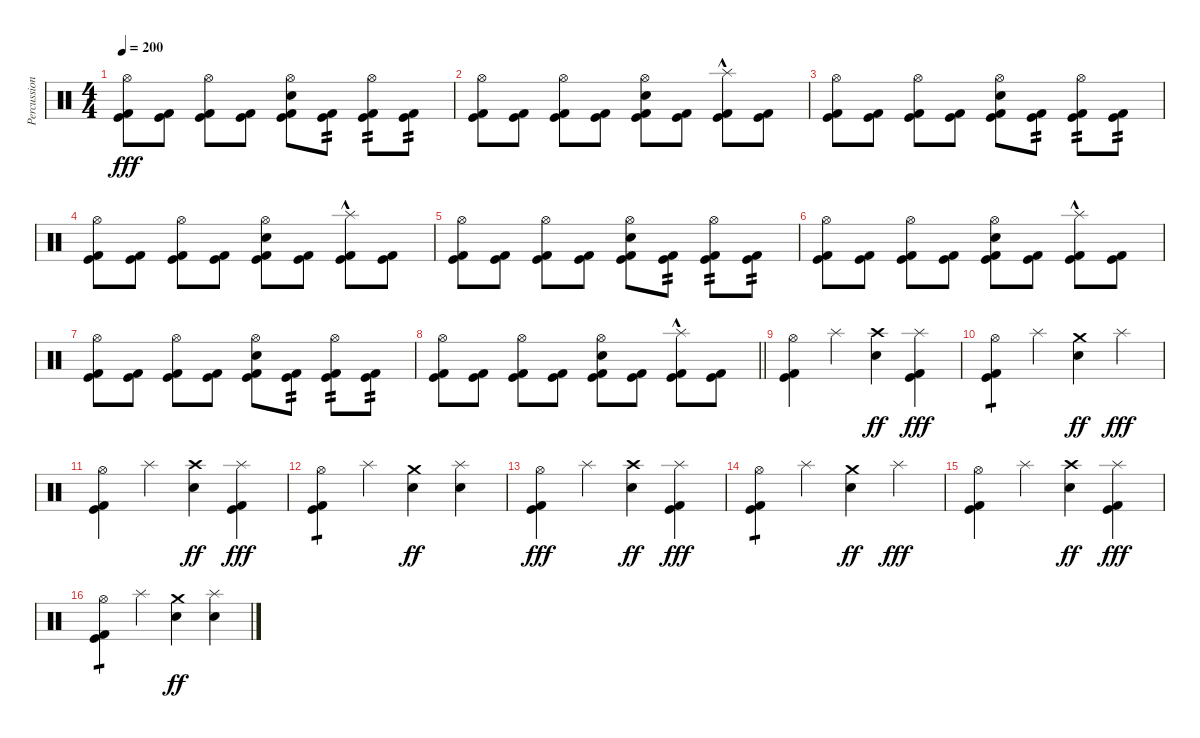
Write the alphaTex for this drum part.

\track ("Percussion" "Percussion") {instrument percussion}
\staff {score}
\articulation defaults
\ts (4 4)
\tempo 200
\clef neutral
\ks c
("Hi-Hat (open)" "Kick (hit) 2" "Kick (hit)").8{dy fff} ("Kick (hit) 2" "Kick (hit)").8 ("Hi-Hat (open)" "Kick (hit) 2" "Kick (hit)").8 ("Kick (hit) 2" "Kick (hit)").8 ("Hi-Hat (open)" "Electric Snare (hit)" "Kick (hit) 2" "Kick (hit)").8 ("Kick (hit) 2" "Kick (hit)").8{tp 2} ("Hi-Hat (open)" "Kick (hit) 2" "Kick (hit)").8{tp 2} ("Kick (hit) 2" "Kick (hit)").8{tp 2} |
("Hi-Hat (open)" "Kick (hit) 2" "Kick (hit)").8 ("Kick (hit) 2" "Kick (hit)").8 ("Hi-Hat (open)" "Kick (hit) 2" "Kick (hit)").8 ("Kick (hit) 2" "Kick (hit)").8 ("Hi-Hat (open)" "Electric Snare (hit)" "Kick (hit) 2" "Kick (hit)").8 ("Kick (hit) 2" "Kick (hit)").8 ("Splash (hit)"{hac} "Kick (hit) 2" "Kick (hit)").8 ("Kick (hit) 2" "Kick (hit)").8 |
("Hi-Hat (open)" "Kick (hit) 2" "Kick (hit)").8 ("Kick (hit) 2" "Kick (hit)").8 ("Hi-Hat (open)" "Kick (hit) 2" "Kick (hit)").8 ("Kick (hit) 2" "Kick (hit)").8 ("Hi-Hat (open)" "Electric Snare (hit)" "Kick (hit) 2" "Kick (hit)").8 ("Kick (hit) 2" "Kick (hit)").8{tp 2} ("Hi-Hat (open)" "Kick (hit) 2" "Kick (hit)").8{tp 2} ("Kick (hit) 2" "Kick (hit)").8{tp 2} |
("Hi-Hat (open)" "Kick (hit) 2" "Kick (hit)").8 ("Kick (hit) 2" "Kick (hit)").8 ("Hi-Hat (open)" "Kick (hit) 2" "Kick (hit)").8 ("Kick (hit) 2" "Kick (hit)").8 ("Hi-Hat (open)" "Electric Snare (hit)" "Kick (hit) 2" "Kick (hit)").8 ("Kick (hit) 2" "Kick (hit)").8 ("Splash (hit)"{hac} "Kick (hit) 2" "Kick (hit)").8 ("Kick (hit) 2" "Kick (hit)").8 |
("Hi-Hat (open)" "Kick (hit) 2" "Kick (hit)").8 ("Kick (hit) 2" "Kick (hit)").8 ("Hi-Hat (open)" "Kick (hit) 2" "Kick (hit)").8 ("Kick (hit) 2" "Kick (hit)").8 ("Hi-Hat (open)" "Electric Snare (hit)" "Kick (hit) 2" "Kick (hit)").8 ("Kick (hit) 2" "Kick (hit)").8{tp 2} ("Hi-Hat (open)" "Kick (hit) 2" "Kick (hit)").8{tp 2} ("Kick (hit) 2" "Kick (hit)").8{tp 2} |
("Hi-Hat (open)" "Kick (hit) 2" "Kick (hit)").8 ("Kick (hit) 2" "Kick (hit)").8 ("Hi-Hat (open)" "Kick (hit) 2" "Kick (hit)").8 ("Kick (hit) 2" "Kick (hit)").8 ("Hi-Hat (open)" "Electric Snare (hit)" "Kick (hit) 2" "Kick (hit)").8 ("Kick (hit) 2" "Kick (hit)").8 ("Splash (hit)"{hac} "Kick (hit) 2" "Kick (hit)").8 ("Kick (hit) 2" "Kick (hit)").8 |
("Hi-Hat (open)" "Kick (hit) 2" "Kick (hit)").8 ("Kick (hit) 2" "Kick (hit)").8 ("Hi-Hat (open)" "Kick (hit) 2" "Kick (hit)").8 ("Kick (hit) 2" "Kick (hit)").8 ("Hi-Hat (open)" "Electric Snare (hit)" "Kick (hit) 2" "Kick (hit)").8 ("Kick (hit) 2" "Kick (hit)").8{tp 2} ("Hi-Hat (open)" "Kick (hit) 2" "Kick (hit)").8{tp 2} ("Kick (hit) 2" "Kick (hit)").8{tp 2} |
\barLineRight lightlight
("Hi-Hat (open)" "Kick (hit) 2" "Kick (hit)").8 ("Kick (hit) 2" "Kick (hit)").8 ("Hi-Hat (open)" "Kick (hit) 2" "Kick (hit)").8 ("Kick (hit) 2" "Kick (hit)").8 ("Hi-Hat (open)" "Electric Snare (hit)" "Kick (hit) 2" "Kick (hit)").8 ("Kick (hit) 2" "Kick (hit)").8 ("Splash (hit)"{hac} "Kick (hit) 2" "Kick (hit)").8 ("Kick (hit) 2" "Kick (hit)").8 |
("Hi-Hat (open)" "Kick (hit) 2" "Kick (hit)").4 "Splash (hit)".4 ("Crash high (hit)" "Electric Snare (hit)").4{dy ff} ("Splash (hit)" "Kick (hit) 2" "Kick (hit)").4{dy fff} |
("Hi-Hat (open)" "Kick (hit) 2" "Kick (hit)").4{tp 1} "Splash (hit)".4 ("Crash medium (hit)" "Electric Snare (hit)").4{dy ff} "Splash (hit)".4{dy fff} |
("Hi-Hat (open)" "Kick (hit) 2" "Kick (hit)").4 "Splash (hit)".4 ("Crash high (hit)" "Electric Snare (hit)").4{dy ff} ("Splash (hit)" "Kick (hit) 2" "Kick (hit)").4{dy fff} |
("Hi-Hat (open)" "Kick (hit) 2" "Kick (hit)").4{tp 1} "Splash (hit)".4 ("Crash medium (hit)" "Electric Snare (hit)").4{dy ff} ("Splash (hit)" "Electric Snare (hit)").4 |
("Hi-Hat (open)" "Kick (hit) 2" "Kick (hit)").4{dy fff} "Splash (hit)".4 ("Crash high (hit)" "Electric Snare (hit)").4{dy ff} ("Splash (hit)" "Kick (hit) 2" "Kick (hit)").4{dy fff} |
("Hi-Hat (open)" "Kick (hit) 2" "Kick (hit)").4{tp 1} "Splash (hit)".4 ("Crash medium (hit)" "Electric Snare (hit)").4{dy ff} "Splash (hit)".4{dy fff} |
("Hi-Hat (open)" "Kick (hit) 2" "Kick (hit)").4 "Splash (hit)".4 ("Crash high (hit)" "Electric Snare (hit)").4{dy ff} ("Splash (hit)" "Kick (hit) 2" "Kick (hit)").4{dy fff} |
("Hi-Hat (open)" "Kick (hit) 2" "Kick (hit)").4{tp 1} "Splash (hit)".4 ("Crash medium (hit)" "Electric Snare (hit)").4{dy ff} ("Splash (hit)" "Electric Snare (hit)").4
